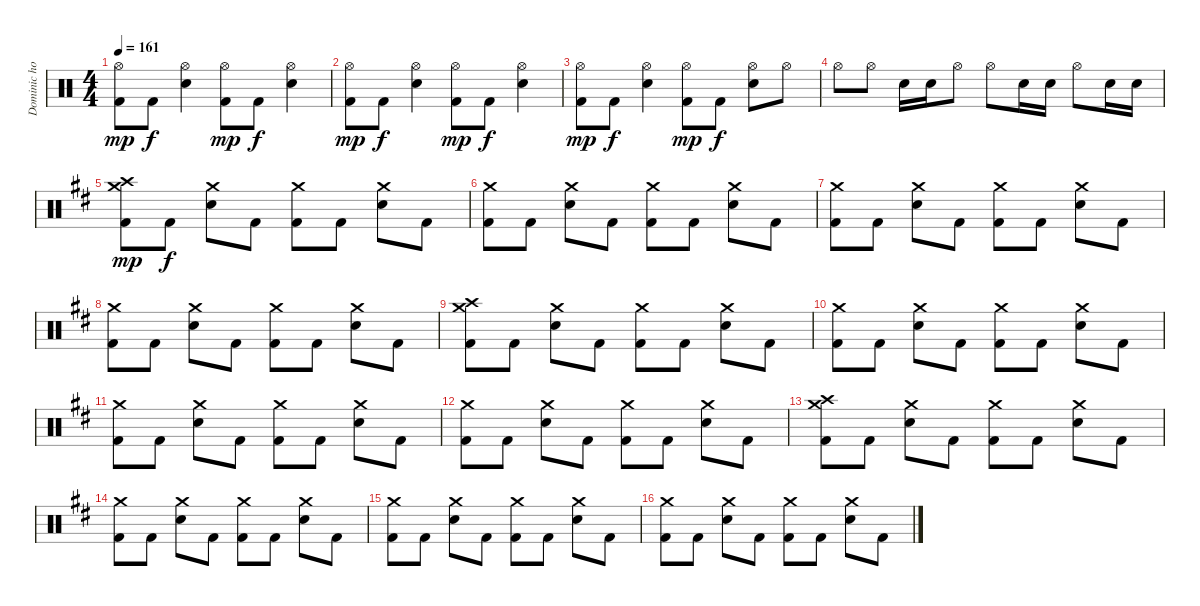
\track ("Dominic howard" "Dominic ho") {instrument percussion}
\staff {score}
\articulation defaults
\ts (4 4)
\tempo 161
\clef neutral
\ks c
("Hi-Hat (open)" "Kick (hit) 2").8{dy mp} "Kick (hit) 2".8{dy f} ("Hi-Hat (open)" "Electric Snare (hit)").4 ("Hi-Hat (open)" "Kick (hit) 2").8{dy mp} "Kick (hit) 2".8{dy f} ("Hi-Hat (open)" "Electric Snare (hit)").4 |
("Hi-Hat (open)" "Kick (hit) 2").8{dy mp} "Kick (hit) 2".8{dy f} ("Hi-Hat (open)" "Electric Snare (hit)").4 ("Hi-Hat (open)" "Kick (hit) 2").8{dy mp} "Kick (hit) 2".8{dy f} ("Hi-Hat (open)" "Electric Snare (hit)").4 |
("Hi-Hat (open)" "Kick (hit) 2").8{dy mp} "Kick (hit) 2".8{dy f} ("Hi-Hat (open)" "Electric Snare (hit)").4 ("Hi-Hat (open)" "Kick (hit) 2").8{dy mp} "Kick (hit) 2".8{dy f} ("Hi-Hat (open)" "Electric Snare (hit)").8 "Hi-Hat (open)".8 |
"Hi-Hat (open)".8 "Hi-Hat (open)".8 "Electric Snare (hit)".16 "Electric Snare (hit)".16 "Hi-Hat (open)".8 "Hi-Hat (open)".8 "Electric Snare (hit)".16 "Electric Snare (hit)".16 "Hi-Hat (open)".8 "Electric Snare (hit)".16 "Electric Snare (hit)".16 |
\ks d
("Crash high (hit)" "Crash medium (hit)" "Kick (hit) 2").8{dy mp} "Kick (hit) 2".8{dy f} ("Crash medium (hit)" "Electric Snare (hit)").8 "Kick (hit) 2".8 ("Crash medium (hit)" "Kick (hit) 2").8 "Kick (hit) 2".8 ("Crash medium (hit)" "Electric Snare (hit)").8 "Kick (hit) 2".8 |
("Crash medium (hit)" "Kick (hit) 2").8 "Kick (hit) 2".8 ("Crash medium (hit)" "Electric Snare (hit)").8 "Kick (hit) 2".8 ("Crash medium (hit)" "Kick (hit) 2").8 "Kick (hit) 2".8 ("Crash medium (hit)" "Electric Snare (hit)").8 "Kick (hit) 2".8 |
("Crash medium (hit)" "Kick (hit) 2").8 "Kick (hit) 2".8 ("Crash medium (hit)" "Electric Snare (hit)").8 "Kick (hit) 2".8 ("Crash medium (hit)" "Kick (hit) 2").8 "Kick (hit) 2".8 ("Crash medium (hit)" "Electric Snare (hit)").8 "Kick (hit) 2".8 |
("Crash medium (hit)" "Kick (hit) 2").8 "Kick (hit) 2".8 ("Crash medium (hit)" "Electric Snare (hit)").8 "Kick (hit) 2".8 ("Crash medium (hit)" "Kick (hit) 2").8 "Kick (hit) 2".8 ("Crash medium (hit)" "Electric Snare (hit)").8 "Kick (hit) 2".8 |
("Crash high (hit)" "Crash medium (hit)" "Kick (hit) 2").8 "Kick (hit) 2".8 ("Crash medium (hit)" "Electric Snare (hit)").8 "Kick (hit) 2".8 ("Crash medium (hit)" "Kick (hit) 2").8 "Kick (hit) 2".8 ("Crash medium (hit)" "Electric Snare (hit)").8 "Kick (hit) 2".8 |
("Crash medium (hit)" "Kick (hit) 2").8 "Kick (hit) 2".8 ("Crash medium (hit)" "Electric Snare (hit)").8 "Kick (hit) 2".8 ("Crash medium (hit)" "Kick (hit) 2").8 "Kick (hit) 2".8 ("Crash medium (hit)" "Electric Snare (hit)").8 "Kick (hit) 2".8 |
("Crash medium (hit)" "Kick (hit) 2").8 "Kick (hit) 2".8 ("Crash medium (hit)" "Electric Snare (hit)").8 "Kick (hit) 2".8 ("Crash medium (hit)" "Kick (hit) 2").8 "Kick (hit) 2".8 ("Crash medium (hit)" "Electric Snare (hit)").8 "Kick (hit) 2".8 |
("Crash medium (hit)" "Kick (hit) 2").8 "Kick (hit) 2".8 ("Crash medium (hit)" "Electric Snare (hit)").8 "Kick (hit) 2".8 ("Crash medium (hit)" "Kick (hit) 2").8 "Kick (hit) 2".8 ("Crash medium (hit)" "Electric Snare (hit)").8 "Kick (hit) 2".8 |
("Crash high (hit)" "Crash medium (hit)" "Kick (hit) 2").8 "Kick (hit) 2".8 ("Crash medium (hit)" "Electric Snare (hit)").8 "Kick (hit) 2".8 ("Crash medium (hit)" "Kick (hit) 2").8 "Kick (hit) 2".8 ("Crash medium (hit)" "Electric Snare (hit)").8 "Kick (hit) 2".8 |
("Crash medium (hit)" "Kick (hit) 2").8 "Kick (hit) 2".8 ("Crash medium (hit)" "Electric Snare (hit)").8 "Kick (hit) 2".8 ("Crash medium (hit)" "Kick (hit) 2").8 "Kick (hit) 2".8 ("Crash medium (hit)" "Electric Snare (hit)").8 "Kick (hit) 2".8 |
("Crash medium (hit)" "Kick (hit) 2").8 "Kick (hit) 2".8 ("Crash medium (hit)" "Electric Snare (hit)").8 "Kick (hit) 2".8 ("Crash medium (hit)" "Kick (hit) 2").8 "Kick (hit) 2".8 ("Crash medium (hit)" "Electric Snare (hit)").8 "Kick (hit) 2".8 |
("Crash medium (hit)" "Kick (hit) 2").8 "Kick (hit) 2".8 ("Crash medium (hit)" "Electric Snare (hit)").8 "Kick (hit) 2".8 ("Crash medium (hit)" "Kick (hit) 2").8 "Kick (hit) 2".8 ("Crash medium (hit)" "Electric Snare (hit)").8 "Kick (hit) 2".8
